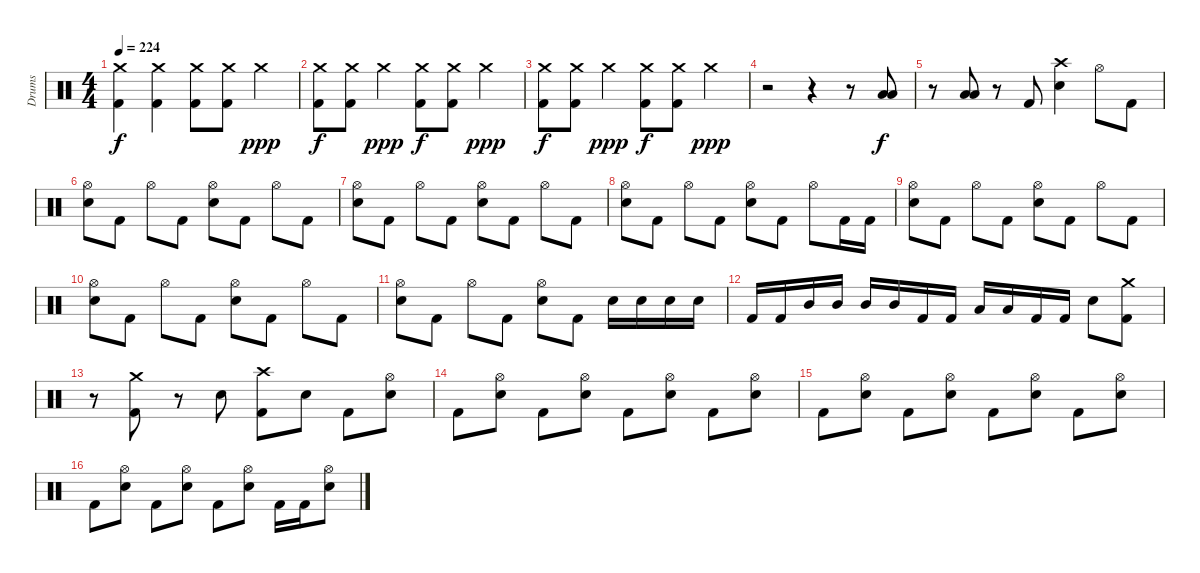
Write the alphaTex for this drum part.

\track ("Drums" "Drums") {instrument percussion}
\staff {score}
\articulation defaults
\ts (4 4)
\tempo 224
\clef neutral
\ks c
("Crash medium (hit)" "Kick (hit) 2").4{dy f} ("Crash medium (hit)" "Kick (hit) 2").4 ("Crash medium (hit)" "Kick (hit) 2").8 ("Crash medium (hit)" "Kick (hit) 2").8 "Crash medium (hit)".4{dy ppp} |
("Crash medium (hit)" "Kick (hit) 2").8{dy f} ("Crash medium (hit)" "Kick (hit) 2").8 "Crash medium (hit)".4{dy ppp} ("Crash medium (hit)" "Kick (hit) 2").8{dy f} ("Crash medium (hit)" "Kick (hit) 2").8 "Crash medium (hit)".4{dy ppp} |
("Crash medium (hit)" "Kick (hit) 2").8{dy f} ("Crash medium (hit)" "Kick (hit) 2").8 "Crash medium (hit)".4{dy ppp} ("Crash medium (hit)" "Kick (hit) 2").8{dy f} ("Crash medium (hit)" "Kick (hit) 2").8 "Crash medium (hit)".4{dy ppp} |
r.2 r.4 r.8 ("Low Tom (hit)" "Low Floor Tom (hit)").8{dy f} |
r.8 ("Low Floor Tom (hit)" "Low Tom (hit)").8 r.8 "Kick (hit) 2".8 ("Crash high (hit)" "Electric Snare (hit)").4 "Hi-Hat (open)".8 "Kick (hit) 2".8 |
("Hi-Hat (open)" "Electric Snare (hit)").8 "Kick (hit) 2".8 "Hi-Hat (open)".8 "Kick (hit) 2".8 ("Hi-Hat (open)" "Electric Snare (hit)").8 "Kick (hit) 2".8 "Hi-Hat (open)".8 "Kick (hit) 2".8 |
("Hi-Hat (open)" "Electric Snare (hit)").8 "Kick (hit) 2".8 "Hi-Hat (open)".8 "Kick (hit) 2".8 ("Hi-Hat (open)" "Electric Snare (hit)").8 "Kick (hit) 2".8 "Hi-Hat (open)".8 "Kick (hit) 2".8 |
("Hi-Hat (open)" "Electric Snare (hit)").8 "Kick (hit) 2".8 "Hi-Hat (open)".8 "Kick (hit) 2".8 ("Hi-Hat (open)" "Electric Snare (hit)").8 "Kick (hit) 2".8 "Hi-Hat (open)".8 "Kick (hit) 2".16 "Kick (hit) 2".16 |
("Hi-Hat (open)" "Electric Snare (hit)").8 "Kick (hit) 2".8 "Hi-Hat (open)".8 "Kick (hit) 2".8 ("Hi-Hat (open)" "Electric Snare (hit)").8 "Kick (hit) 2".8 "Hi-Hat (open)".8 "Kick (hit) 2".8 |
("Hi-Hat (open)" "Electric Snare (hit)").8 "Kick (hit) 2".8 "Hi-Hat (open)".8 "Kick (hit) 2".8 ("Hi-Hat (open)" "Electric Snare (hit)").8 "Kick (hit) 2".8 "Hi-Hat (open)".8 "Kick (hit) 2".8 |
("Hi-Hat (open)" "Electric Snare (hit)").8 "Kick (hit) 2".8 "Hi-Hat (open)".8 "Kick (hit) 2".8 ("Hi-Hat (open)" "Electric Snare (hit)").8 "Kick (hit) 2".8 "Electric Snare (hit)".16 "Electric Snare (hit)".16 "Electric Snare (hit)".16 "Electric Snare (hit)".16 |
"Kick (hit) 2".16 "Kick (hit) 2".16 "Mid Tom (hit)".16 "Mid Tom (hit)".16 "Mid Tom (hit)".16 "Mid Tom (hit)".16 "Kick (hit) 2".16 "Kick (hit) 2".16 "Low Tom (hit)".16 "Low Tom (hit)".16 "Kick (hit) 2".16 "Kick (hit) 2".16 "Electric Snare (hit)".8 ("Kick (hit) 2" "Crash medium (hit)").8 |
r.8 ("Kick (hit) 2" "Crash medium (hit)").8 r.8 "Electric Snare (hit)".8 ("Kick (hit) 2" "Crash high (hit)").8 "Electric Snare (hit)".8 "Kick (hit) 2".8 ("Electric Snare (hit)" "Hi-Hat (open)").8 |
"Kick (hit) 2".8 ("Hi-Hat (open)" "Electric Snare (hit)").8 "Kick (hit) 2".8 ("Hi-Hat (open)" "Electric Snare (hit)").8 "Kick (hit) 2".8 ("Hi-Hat (open)" "Electric Snare (hit)").8 "Kick (hit) 2".8 ("Hi-Hat (open)" "Electric Snare (hit)").8 |
"Kick (hit) 2".8 ("Hi-Hat (open)" "Electric Snare (hit)").8 "Kick (hit) 2".8 ("Hi-Hat (open)" "Electric Snare (hit)").8 "Kick (hit) 2".8 ("Hi-Hat (open)" "Electric Snare (hit)").8 "Kick (hit) 2".8 ("Hi-Hat (open)" "Electric Snare (hit)").8 |
"Kick (hit) 2".8 ("Hi-Hat (open)" "Electric Snare (hit)").8 "Kick (hit) 2".8 ("Hi-Hat (open)" "Electric Snare (hit)").8 "Kick (hit) 2".8 ("Hi-Hat (open)" "Electric Snare (hit)").8 "Kick (hit) 2".16 "Kick (hit) 2".16 ("Hi-Hat (open)" "Electric Snare (hit)").8
